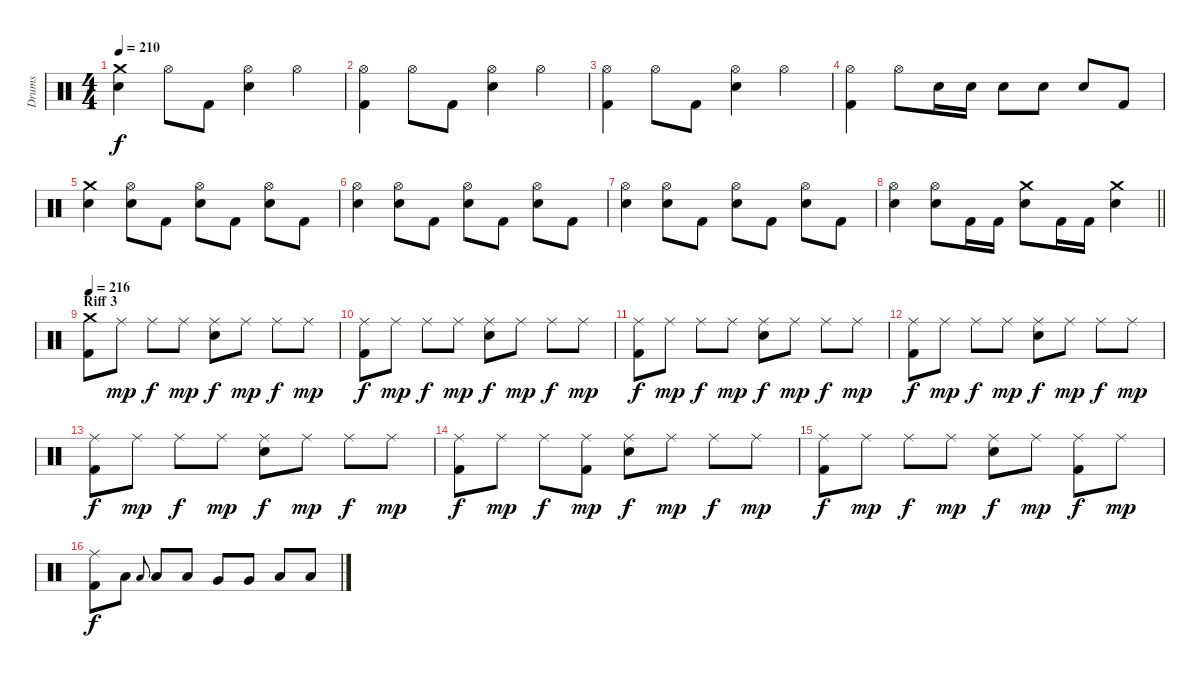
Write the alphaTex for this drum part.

\track ("Drums" "Drums") {instrument percussion}
\staff {score}
\articulation defaults
\ts (4 4)
\tempo 210
\clef neutral
\ks c
("Electric Snare (hit)" "Crash medium (hit)").4{dy f} "Hi-Hat (open)".8 "Kick (hit) 2".8 ("Hi-Hat (open)" "Electric Snare (hit)").4 "Hi-Hat (open)".4 |
("Kick (hit) 2" "Hi-Hat (open)").4 "Hi-Hat (open)".8 "Kick (hit) 2".8 ("Electric Snare (hit)" "Hi-Hat (open)").4 "Hi-Hat (open)".4 |
("Kick (hit) 2" "Hi-Hat (open)").4 "Hi-Hat (open)".8 "Kick (hit) 2".8 ("Electric Snare (hit)" "Hi-Hat (open)").4 "Hi-Hat (open)".4 |
("Kick (hit) 2" "Hi-Hat (open)").4 "Hi-Hat (open)".8 "Electric Snare (hit)".16 "Electric Snare (hit)".16 "Electric Snare (hit)".8 "Electric Snare (hit)".8 "Electric Snare (hit)".8 "Kick (hit) 2".8 |
("Electric Snare (hit)" "Crash medium (hit)").4 ("Hi-Hat (open)" "Electric Snare (hit)").8 "Kick (hit) 2".8 ("Hi-Hat (open)" "Electric Snare (hit)").8 "Kick (hit) 2".8 ("Electric Snare (hit)" "Hi-Hat (open)").8 "Kick (hit) 2".8 |
("Electric Snare (hit)" "Hi-Hat (open)").4 ("Hi-Hat (open)" "Electric Snare (hit)").8 "Kick (hit) 2".8 ("Hi-Hat (open)" "Electric Snare (hit)").8 "Kick (hit) 2".8 ("Electric Snare (hit)" "Hi-Hat (open)").8 "Kick (hit) 2".8 |
("Electric Snare (hit)" "Hi-Hat (open)").4 ("Hi-Hat (open)" "Electric Snare (hit)").8 "Kick (hit) 2".8 ("Hi-Hat (open)" "Electric Snare (hit)").8 "Kick (hit) 2".8 ("Electric Snare (hit)" "Hi-Hat (open)").8 "Kick (hit) 2".8 |
\barLineRight lightlight
("Electric Snare (hit)" "Hi-Hat (open)").4 ("Hi-Hat (open)" "Electric Snare (hit)").8 "Kick (hit) 2".16 "Kick (hit) 2".16 ("Electric Snare (hit)" "Crash medium (hit)").8 "Kick (hit) 2".16 "Kick (hit) 2".16 ("Electric Snare (hit)" "Crash medium (hit)").4 |
\section ("" "Riff 3")
\tempo 216
("Kick (hit) 2" "Crash medium (hit)").8 "Ride (middle)".8{dy mp} "Ride (middle)".8{dy f} "Ride (middle)".8{dy mp} ("Ride (middle)" "Electric Snare (hit)").8{dy f} "Ride (middle)".8{dy mp} "Ride (middle)".8{dy f} "Ride (middle)".8{dy mp} |
("Kick (hit) 2" "Ride (middle)").8{dy f} "Ride (middle)".8{dy mp} "Ride (middle)".8{dy f} "Ride (middle)".8{dy mp} ("Ride (middle)" "Electric Snare (hit)").8{dy f} "Ride (middle)".8{dy mp} "Ride (middle)".8{dy f} "Ride (middle)".8{dy mp} |
("Kick (hit) 2" "Ride (middle)").8{dy f} "Ride (middle)".8{dy mp} "Ride (middle)".8{dy f} "Ride (middle)".8{dy mp} ("Ride (middle)" "Electric Snare (hit)").8{dy f} "Ride (middle)".8{dy mp} "Ride (middle)".8{dy f} "Ride (middle)".8{dy mp} |
("Kick (hit) 2" "Ride (middle)").8{dy f} "Ride (middle)".8{dy mp} "Ride (middle)".8{dy f} "Ride (middle)".8{dy mp} ("Ride (middle)" "Electric Snare (hit)").8{dy f} "Ride (middle)".8{dy mp} "Ride (middle)".8{dy f} "Ride (middle)".8{dy mp} |
("Kick (hit) 2" "Ride (middle)").8{dy f} "Ride (middle)".8{dy mp} "Ride (middle)".8{dy f} "Ride (middle)".8{dy mp} ("Ride (middle)" "Electric Snare (hit)").8{dy f} "Ride (middle)".8{dy mp} "Ride (middle)".8{dy f} "Ride (middle)".8{dy mp} |
("Kick (hit) 2" "Ride (middle)").8{dy f} "Ride (middle)".8{dy mp} "Ride (middle)".8{dy f} ("Ride (middle)" "Kick (hit) 2").8{dy mp} ("Ride (middle)" "Electric Snare (hit)").8{dy f} "Ride (middle)".8{dy mp} "Ride (middle)".8{dy f} "Ride (middle)".8{dy mp} |
("Kick (hit) 2" "Ride (middle)").8{dy f} "Ride (middle)".8{dy mp} "Ride (middle)".8{dy f} "Ride (middle)".8{dy mp} ("Ride (middle)" "Electric Snare (hit)").8{dy f} "Ride (middle)".8{dy mp} ("Ride (middle)" "Kick (hit) 2").8{dy f} "Ride (middle)".8{dy mp} |
("Ride (middle)" "Kick (hit) 2").8{dy f} "Low Tom (hit)".8 "Low Tom (hit)".8{gr onbeat} "Low Tom (hit)".8 "Low Tom (hit)".8 "Very Low Tom (hit)".8 "Very Low Tom (hit)".8 "Low Floor Tom (hit)".8 "Low Floor Tom (hit)".8
